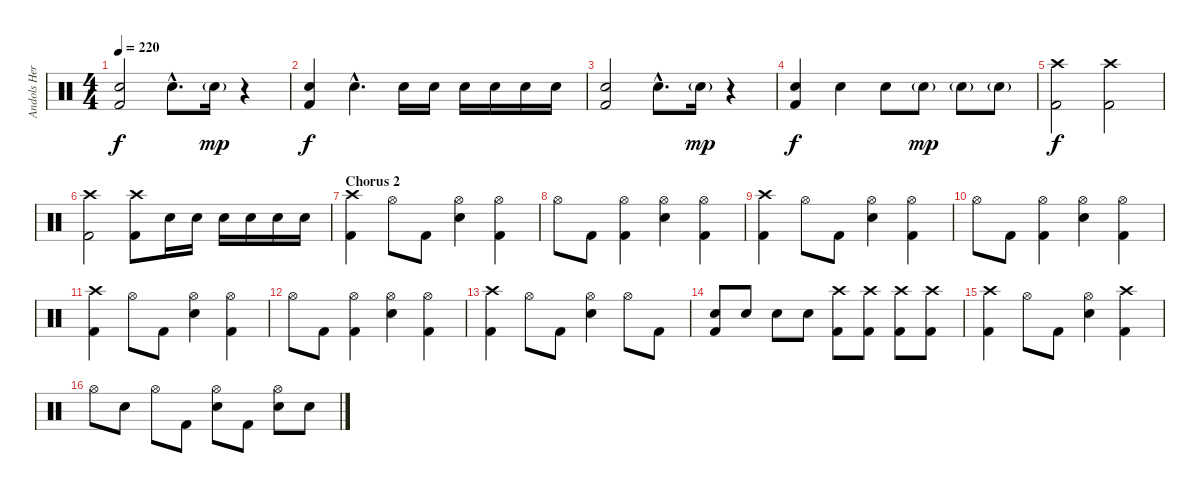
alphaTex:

\track ("Andols Herrick - Drums" "Andols Her") {instrument percussion}
\staff {score}
\articulation defaults
\ts (4 4)
\tempo 220
\clef neutral
\ks c
("Snare (hit) 2" "Kick (hit) 2").2{dy f} "Snare (hit) 2"{hac}.8{d} "Snare (hit) 2"{g}.16{dy mp} r.4 |
("Snare (hit) 2" "Kick (hit) 2").4{dy f} "Snare (hit) 2"{hac}.4{d} "Snare (hit) 2".16 "Snare (hit) 2".16 "Snare (hit) 2".16 "Snare (hit) 2".16 "Snare (hit) 2".16 "Snare (hit) 2".16 |
("Snare (hit) 2" "Kick (hit) 2").2 "Snare (hit) 2"{hac}.8{d} "Snare (hit) 2"{g}.16{dy mp} r.4 |
("Snare (hit) 2" "Kick (hit) 2").4{dy f} "Snare (hit) 2".4 "Snare (hit) 2".8 "Snare (hit) 2"{g}.8{dy mp} "Snare (hit) 2"{g}.8 "Snare (hit) 2"{g}.8 |
("Crash high (hit)" "Kick (hit) 2").2{dy f} ("Crash high (hit)" "Kick (hit) 2").2 |
("Crash high (hit)" "Kick (hit) 2").2 ("Crash high (hit)" "Kick (hit) 2").8 "Snare (hit) 2".16 "Snare (hit) 2".16 "Snare (hit) 2".16 "Snare (hit) 2".16 "Snare (hit) 2".16 "Snare (hit) 2".16 |
\section ("" "Chorus 2")
("Crash high (hit)" "Kick (hit) 2").4 "Hi-Hat (open)".8 "Kick (hit) 2".8 ("Hi-Hat (open)" "Snare (hit) 2").4 ("Hi-Hat (open)" "Kick (hit) 2").4 |
"Hi-Hat (open)".8 "Kick (hit) 2".8 ("Hi-Hat (open)" "Kick (hit) 2").4 ("Hi-Hat (open)" "Snare (hit) 2").4 ("Hi-Hat (open)" "Kick (hit) 2").4 |
("Crash high (hit)" "Kick (hit) 2").4 "Hi-Hat (open)".8 "Kick (hit) 2".8 ("Hi-Hat (open)" "Snare (hit) 2").4 ("Hi-Hat (open)" "Kick (hit) 2").4 |
"Hi-Hat (open)".8 "Kick (hit) 2".8 ("Hi-Hat (open)" "Kick (hit) 2").4 ("Hi-Hat (open)" "Snare (hit) 2").4 ("Hi-Hat (open)" "Kick (hit) 2").4 |
("Crash high (hit)" "Kick (hit) 2").4 "Hi-Hat (open)".8 "Kick (hit) 2".8 ("Hi-Hat (open)" "Snare (hit) 2").4 ("Hi-Hat (open)" "Kick (hit) 2").4 |
"Hi-Hat (open)".8 "Kick (hit) 2".8 ("Hi-Hat (open)" "Kick (hit) 2").4 ("Hi-Hat (open)" "Snare (hit) 2").4 ("Hi-Hat (open)" "Kick (hit) 2").4 |
("Crash high (hit)" "Kick (hit) 2").4 "Hi-Hat (open)".8 "Kick (hit) 2".8 ("Hi-Hat (open)" "Snare (hit) 2").4 "Hi-Hat (open)".8 "Kick (hit) 2".8 |
("Snare (hit) 2" "Kick (hit) 2").8 "Snare (hit) 2".8 "Snare (hit) 2".8 "Snare (hit) 2".8 ("Crash high (hit)" "Kick (hit) 2").8 ("Crash high (hit)" "Kick (hit) 2").8 ("Crash high (hit)" "Kick (hit) 2").8 ("Crash high (hit)" "Kick (hit) 2").8 |
("Crash high (hit)" "Kick (hit) 2").4 "Hi-Hat (open)".8 "Kick (hit) 2".8 ("Hi-Hat (open)" "Snare (hit) 2").4 ("Crash high (hit)" "Kick (hit) 2").4 |
"Hi-Hat (open)".8 "Snare (hit) 2".8 "Hi-Hat (open)".8 "Kick (hit) 2".8 ("Hi-Hat (open)" "Snare (hit) 2").8 "Kick (hit) 2".8 ("Hi-Hat (open)" "Snare (hit) 2").8 "Snare (hit) 2".8
